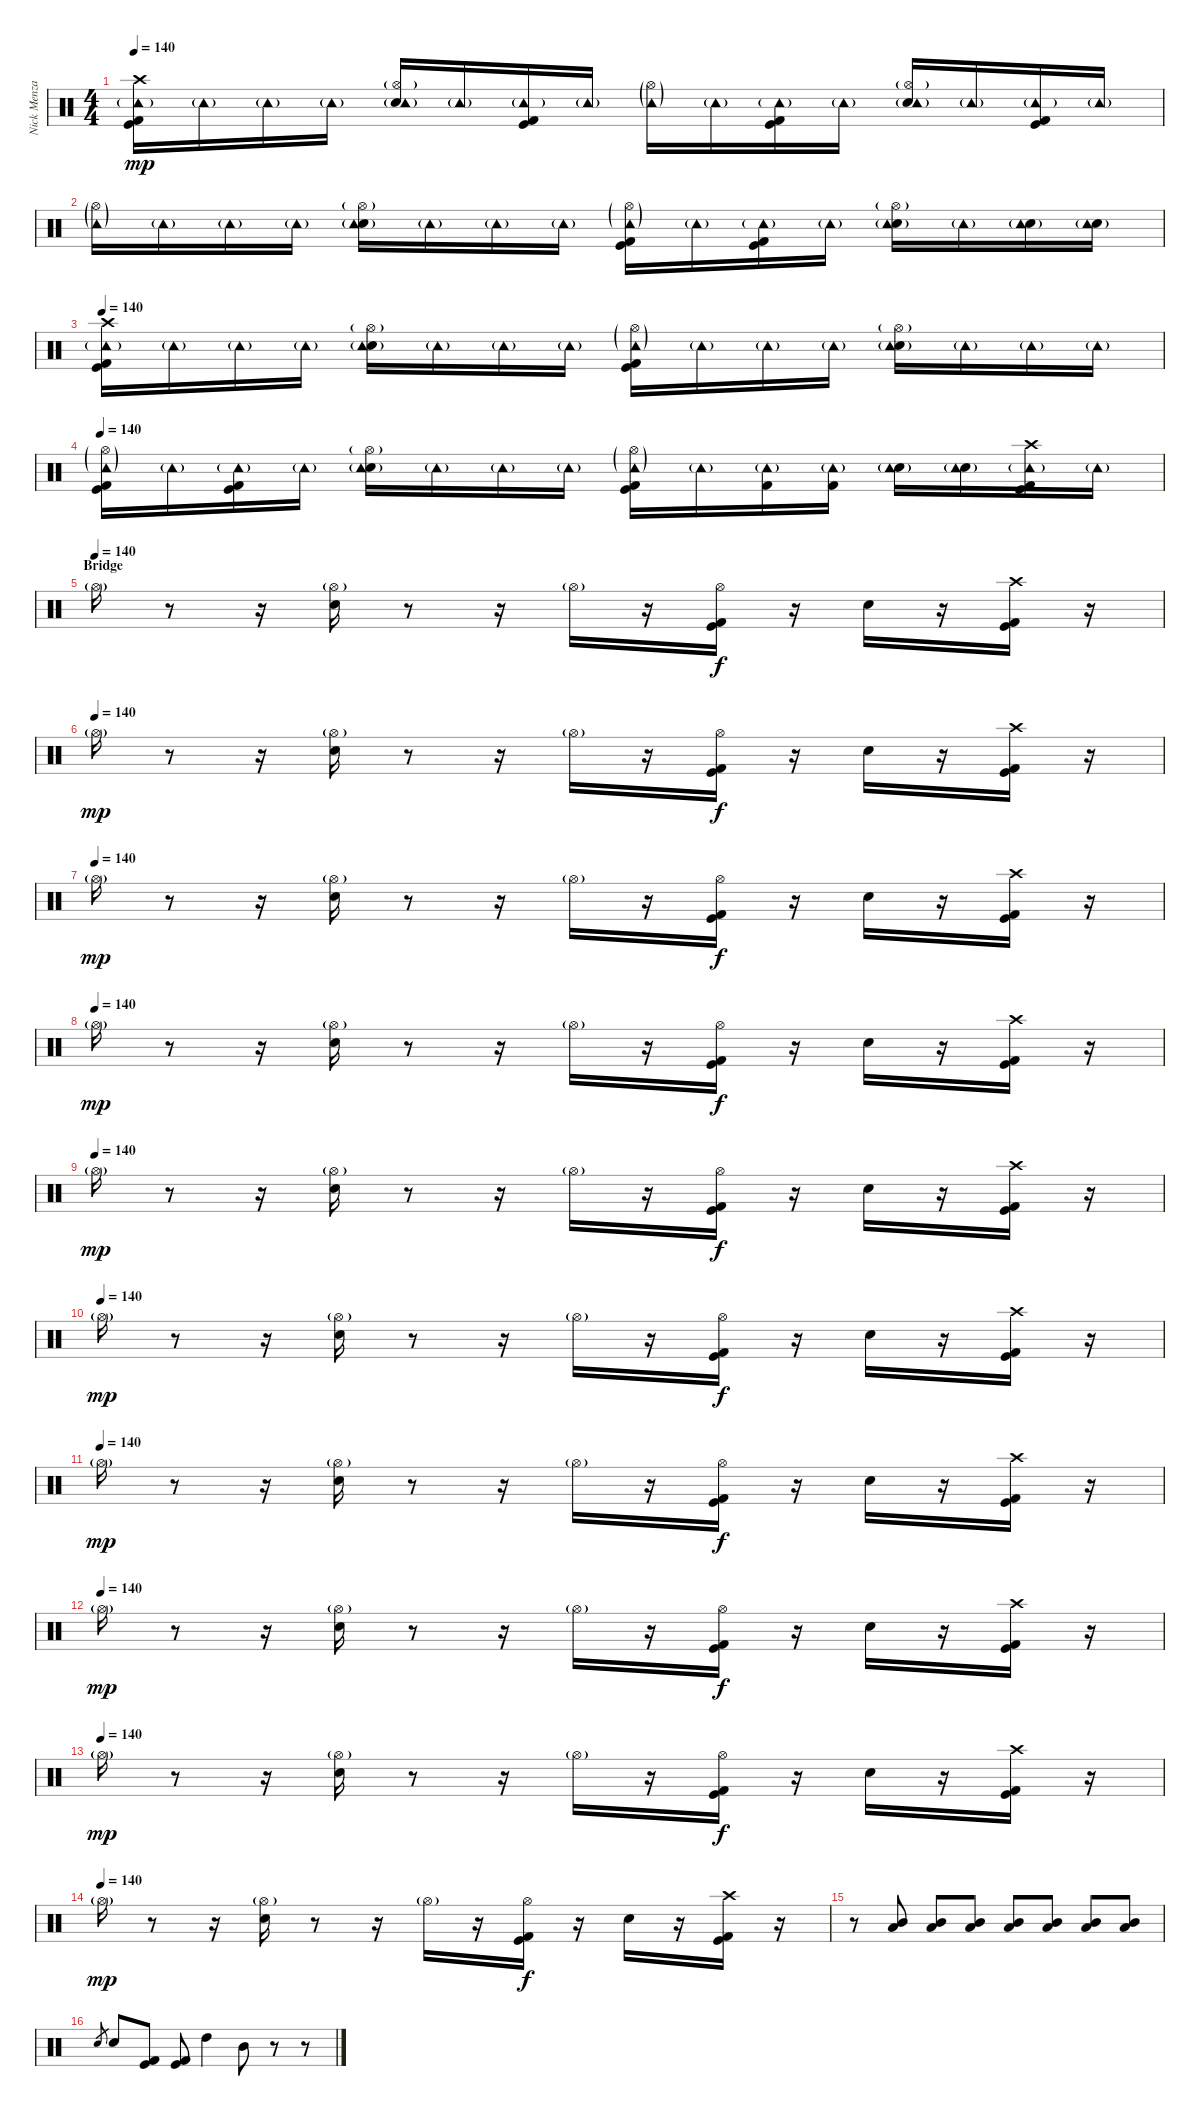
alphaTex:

\track ("Nick Menza" "Nick Menza") {instrument percussion}
\staff {score}
\articulation defaults
\ts (4 4)
\tempo 140
\clef neutral
\ks c
("Crash high (hit)" "Kick (hit)" "Kick (hit) 2" "Tambourine (hit)"{g}).16{dy mp} "Tambourine (hit)"{g}.16 "Tambourine (hit)"{g}.16 "Tambourine (hit)"{g}.16 ("Hi-Hat (open)"{g} "Electric Snare (hit)" "Tambourine (hit)"{g}).16 "Tambourine (hit)"{g}.16 ("Kick (hit)" "Kick (hit) 2" "Tambourine (hit)"{g}).16 "Tambourine (hit)"{g}.16 ("Hi-Hat (open)"{g} "Tambourine (hit)"{g}).16 "Tambourine (hit)"{g}.16 ("Kick (hit)" "Kick (hit) 2" "Tambourine (hit)"{g}).16 "Tambourine (hit)"{g}.16 ("Hi-Hat (open)"{g} "Electric Snare (hit)" "Tambourine (hit)"{g}).16 "Tambourine (hit)"{g}.16 ("Kick (hit)" "Kick (hit) 2" "Tambourine (hit)"{g}).16 "Tambourine (hit)"{g}.16 |
("Hi-Hat (open)"{g} "Tambourine (hit)"{g}).16 "Tambourine (hit)"{g}.16 "Tambourine (hit)"{g}.16 "Tambourine (hit)"{g}.16 ("Hi-Hat (open)"{g} "Electric Snare (hit)" "Tambourine (hit)"{g}).16 "Tambourine (hit)"{g}.16 "Tambourine (hit)"{g}.16 "Tambourine (hit)"{g}.16 ("Hi-Hat (open)"{g} "Kick (hit)" "Kick (hit) 2" "Tambourine (hit)"{g}).16 "Tambourine (hit)"{g}.16 ("Kick (hit)" "Kick (hit) 2" "Tambourine (hit)"{g}).16 "Tambourine (hit)"{g}.16 ("Hi-Hat (open)"{g} "Electric Snare (hit)" "Tambourine (hit)"{g}).16 "Tambourine (hit)"{g}.16 ("Electric Snare (hit)" "Tambourine (hit)"{g}).16 ("Electric Snare (hit)" "Tambourine (hit)"{g}).16 |
\tempo 140
("Crash high (hit)" "Kick (hit)" "Kick (hit) 2" "Tambourine (hit)"{g}).16 "Tambourine (hit)"{g}.16 "Tambourine (hit)"{g}.16 "Tambourine (hit)"{g}.16 ("Hi-Hat (open)"{g} "Electric Snare (hit)" "Tambourine (hit)"{g}).16 "Tambourine (hit)"{g}.16 "Tambourine (hit)"{g}.16 "Tambourine (hit)"{g}.16 ("Hi-Hat (open)"{g} "Kick (hit)" "Kick (hit) 2" "Tambourine (hit)"{g}).16 "Tambourine (hit)"{g}.16 "Tambourine (hit)"{g}.16 "Tambourine (hit)"{g}.16 ("Hi-Hat (open)"{g} "Electric Snare (hit)" "Tambourine (hit)"{g}).16 "Tambourine (hit)"{g}.16 "Tambourine (hit)"{g}.16 "Tambourine (hit)"{g}.16 |
\tempo 140
("Hi-Hat (open)"{g} "Kick (hit)" "Kick (hit) 2" "Tambourine (hit)"{g}).16 "Tambourine (hit)"{g}.16 ("Kick (hit)" "Kick (hit) 2" "Tambourine (hit)"{g}).16 "Tambourine (hit)"{g}.16 ("Hi-Hat (open)"{g} "Electric Snare (hit)" "Tambourine (hit)"{g}).16 "Tambourine (hit)"{g}.16 "Tambourine (hit)"{g}.16 "Tambourine (hit)"{g}.16 ("Hi-Hat (open)"{g} "Kick (hit)" "Kick (hit) 2" "Tambourine (hit)"{g}).16 "Tambourine (hit)"{g}.16 ("Kick (hit) 2" "Tambourine (hit)"{g}).16 ("Kick (hit) 2" "Tambourine (hit)"{g}).16 ("Electric Snare (hit)" "Tambourine (hit)"{g}).16 ("Electric Snare (hit)" "Tambourine (hit)"{g}).16 ("Crash high (hit)" "Kick (hit)" "Kick (hit) 2" "Tambourine (hit)"{g}).16 "Tambourine (hit)"{g}.16 |
\section ("" "Bridge")
\tempo (140)
"Hi-Hat (open)"{g}.16 r.8 r.16 ("Hi-Hat (open)"{g} "Electric Snare (hit)").16 r.8 r.16 "Hi-Hat (open)"{g}.16 r.16 ("Hi-Hat (open)" "Kick (hit)" "Kick (hit) 2").16{dy f} r.16 "Electric Snare (hit)".16 r.16 ("Crash high (hit)" "Kick (hit)" "Kick (hit) 2").16 r.16 |
\tempo (140)
"Hi-Hat (open)"{g}.16{dy mp} r.8 r.16 ("Hi-Hat (open)"{g} "Electric Snare (hit)").16 r.8 r.16 "Hi-Hat (open)"{g}.16 r.16 ("Hi-Hat (open)" "Kick (hit)" "Kick (hit) 2").16{dy f} r.16 "Electric Snare (hit)".16 r.16 ("Crash high (hit)" "Kick (hit)" "Kick (hit) 2").16 r.16 |
\tempo (140)
"Hi-Hat (open)"{g}.16{dy mp} r.8 r.16 ("Hi-Hat (open)"{g} "Electric Snare (hit)").16 r.8 r.16 "Hi-Hat (open)"{g}.16 r.16 ("Hi-Hat (open)" "Kick (hit)" "Kick (hit) 2").16{dy f} r.16 "Electric Snare (hit)".16 r.16 ("Crash high (hit)" "Kick (hit)" "Kick (hit) 2").16 r.16 |
\tempo (140)
"Hi-Hat (open)"{g}.16{dy mp} r.8 r.16 ("Hi-Hat (open)"{g} "Electric Snare (hit)").16 r.8 r.16 "Hi-Hat (open)"{g}.16 r.16 ("Hi-Hat (open)" "Kick (hit)" "Kick (hit) 2").16{dy f} r.16 "Electric Snare (hit)".16 r.16 ("Crash high (hit)" "Kick (hit)" "Kick (hit) 2").16 r.16 |
\tempo (140)
"Hi-Hat (open)"{g}.16{dy mp} r.8 r.16 ("Hi-Hat (open)"{g} "Electric Snare (hit)").16 r.8 r.16 "Hi-Hat (open)"{g}.16 r.16 ("Hi-Hat (open)" "Kick (hit)" "Kick (hit) 2").16{dy f} r.16 "Electric Snare (hit)".16 r.16 ("Crash high (hit)" "Kick (hit)" "Kick (hit) 2").16 r.16 |
\tempo (140)
"Hi-Hat (open)"{g}.16{dy mp} r.8 r.16 ("Hi-Hat (open)"{g} "Electric Snare (hit)").16 r.8 r.16 "Hi-Hat (open)"{g}.16 r.16 ("Hi-Hat (open)" "Kick (hit)" "Kick (hit) 2").16{dy f} r.16 "Electric Snare (hit)".16 r.16 ("Crash high (hit)" "Kick (hit)" "Kick (hit) 2").16 r.16 |
\tempo (140)
"Hi-Hat (open)"{g}.16{dy mp} r.8 r.16 ("Hi-Hat (open)"{g} "Electric Snare (hit)").16 r.8 r.16 "Hi-Hat (open)"{g}.16 r.16 ("Hi-Hat (open)" "Kick (hit)" "Kick (hit) 2").16{dy f} r.16 "Electric Snare (hit)".16 r.16 ("Crash high (hit)" "Kick (hit)" "Kick (hit) 2").16 r.16 |
\tempo (140)
"Hi-Hat (open)"{g}.16{dy mp} r.8 r.16 ("Hi-Hat (open)"{g} "Electric Snare (hit)").16 r.8 r.16 "Hi-Hat (open)"{g}.16 r.16 ("Hi-Hat (open)" "Kick (hit)" "Kick (hit) 2").16{dy f} r.16 "Electric Snare (hit)".16 r.16 ("Crash high (hit)" "Kick (hit)" "Kick (hit) 2").16 r.16 |
\tempo (140)
"Hi-Hat (open)"{g}.16{dy mp} r.8 r.16 ("Hi-Hat (open)"{g} "Electric Snare (hit)").16 r.8 r.16 "Hi-Hat (open)"{g}.16 r.16 ("Hi-Hat (open)" "Kick (hit)" "Kick (hit) 2").16{dy f} r.16 "Electric Snare (hit)".16 r.16 ("Crash high (hit)" "Kick (hit)" "Kick (hit) 2").16 r.16 |
\tempo (140)
"Hi-Hat (open)"{g}.16{dy mp} r.8 r.16 ("Hi-Hat (open)"{g} "Electric Snare (hit)").16 r.8 r.16 "Hi-Hat (open)"{g}.16 r.16 ("Hi-Hat (open)" "Kick (hit)" "Kick (hit) 2").16{dy f} r.16 "Electric Snare (hit)".16 r.16 ("Crash high (hit)" "Kick (hit)" "Kick (hit) 2").16 r.16 |
r.8 ("Mid Tom (hit)" "Low Floor Tom (hit)").8 ("Mid Tom (hit)" "Low Floor Tom (hit)").8 ("Mid Tom (hit)" "Low Floor Tom (hit)").8 ("Mid Tom (hit)" "Low Floor Tom (hit)").8 ("Mid Tom (hit)" "Low Floor Tom (hit)").8 ("Mid Tom (hit)" "Low Floor Tom (hit)").8 ("Mid Tom (hit)" "Low Floor Tom (hit)").8 |
"Electric Snare (hit)".8{gr} "Electric Snare (hit)".8 ("Kick (hit)" "Kick (hit) 2").8 ("Kick (hit)" "Kick (hit) 2").8 "High Tom (hit)".4 "Mid Tom (hit)".8 r.8 r.8
